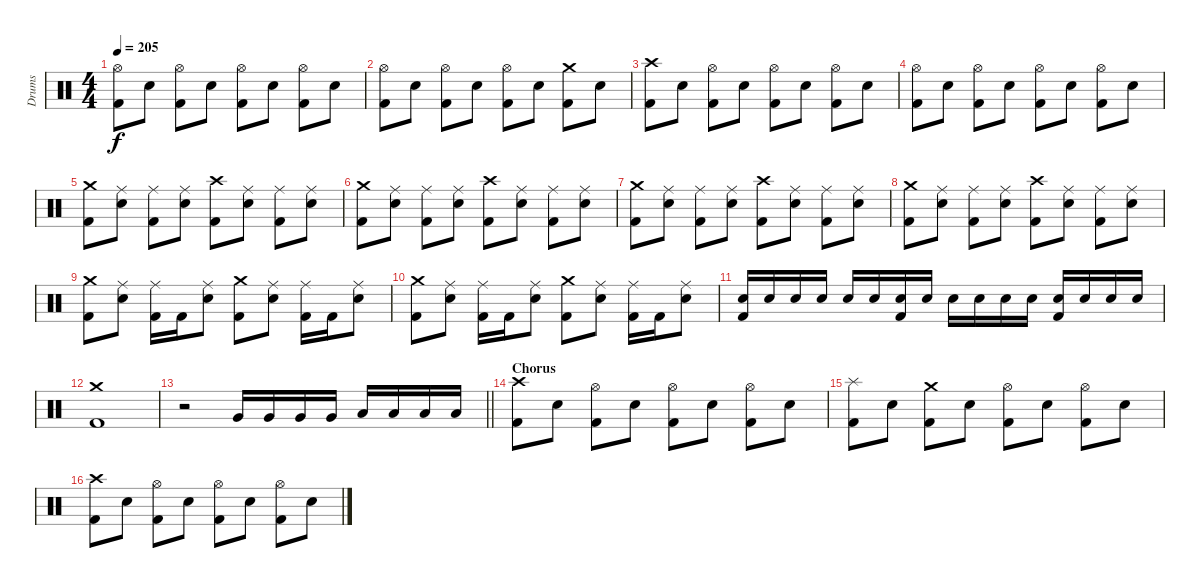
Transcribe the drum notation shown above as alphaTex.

\track ("Drums" "Drums") {instrument percussion}
\staff {score}
\articulation defaults
\ts (4 4)
\tempo 205
\clef neutral
\ks c
("Hi-Hat (open)" "Kick (hit) 2").8{dy f} "Electric Snare (hit)".8 ("Hi-Hat (open)" "Kick (hit) 2").8 "Electric Snare (hit)".8 ("Hi-Hat (open)" "Kick (hit) 2").8 "Electric Snare (hit)".8 ("Hi-Hat (open)" "Kick (hit) 2").8 "Electric Snare (hit)".8 |
("Hi-Hat (open)" "Kick (hit) 2").8 "Electric Snare (hit)".8 ("Hi-Hat (open)" "Kick (hit) 2").8 "Electric Snare (hit)".8 ("Hi-Hat (open)" "Kick (hit) 2").8 "Electric Snare (hit)".8 ("Crash medium (hit)" "Kick (hit) 2").8 "Electric Snare (hit)".8 |
("Crash high (hit)" "Kick (hit) 2").8 "Electric Snare (hit)".8 ("Hi-Hat (open)" "Kick (hit) 2").8 "Electric Snare (hit)".8 ("Hi-Hat (open)" "Kick (hit) 2").8 "Electric Snare (hit)".8 ("Hi-Hat (open)" "Kick (hit) 2").8 "Electric Snare (hit)".8 |
("Hi-Hat (open)" "Kick (hit) 2").8 "Electric Snare (hit)".8 ("Hi-Hat (open)" "Kick (hit) 2").8 "Electric Snare (hit)".8 ("Hi-Hat (open)" "Kick (hit) 2").8 "Electric Snare (hit)".8 ("Hi-Hat (open)" "Kick (hit) 2").8 "Electric Snare (hit)".8 |
("Crash medium (hit)" "Kick (hit) 2").8 ("Ride (middle)" "Electric Snare (hit)").8 ("Ride (middle)" "Kick (hit) 2").8 ("Ride (middle)" "Electric Snare (hit)").8 ("Crash high (hit)" "Kick (hit) 2").8 ("Ride (middle)" "Electric Snare (hit)").8 ("Ride (middle)" "Kick (hit) 2").8 ("Ride (middle)" "Electric Snare (hit)").8 |
("Crash medium (hit)" "Kick (hit) 2").8 ("Ride (middle)" "Electric Snare (hit)").8 ("Ride (middle)" "Kick (hit) 2").8 ("Ride (middle)" "Electric Snare (hit)").8 ("Crash high (hit)" "Kick (hit) 2").8 ("Ride (middle)" "Electric Snare (hit)").8 ("Ride (middle)" "Kick (hit) 2").8 ("Ride (middle)" "Electric Snare (hit)").8 |
("Crash medium (hit)" "Kick (hit) 2").8 ("Ride (middle)" "Electric Snare (hit)").8 ("Ride (middle)" "Kick (hit) 2").8 ("Ride (middle)" "Electric Snare (hit)").8 ("Crash high (hit)" "Kick (hit) 2").8 ("Ride (middle)" "Electric Snare (hit)").8 ("Ride (middle)" "Kick (hit) 2").8 ("Ride (middle)" "Electric Snare (hit)").8 |
("Crash medium (hit)" "Kick (hit) 2").8 ("Ride (middle)" "Electric Snare (hit)").8 ("Ride (middle)" "Kick (hit) 2").8 ("Ride (middle)" "Electric Snare (hit)").8 ("Crash high (hit)" "Kick (hit) 2").8 ("Ride (middle)" "Electric Snare (hit)").8 ("Ride (middle)" "Kick (hit) 2").8 ("Ride (middle)" "Electric Snare (hit)").8 |
("Crash medium (hit)" "Kick (hit) 2").8 ("Ride (middle)" "Electric Snare (hit)").8 ("Ride (middle)" "Kick (hit) 2").16 "Kick (hit) 2".16 ("Ride (middle)" "Electric Snare (hit)").8 ("Crash medium (hit)" "Kick (hit) 2").8 ("Ride (middle)" "Electric Snare (hit)").8 ("Ride (middle)" "Kick (hit) 2").16 "Kick (hit) 2".16 ("Ride (middle)" "Electric Snare (hit)").8 |
("Crash medium (hit)" "Kick (hit) 2").8 ("Ride (middle)" "Electric Snare (hit)").8 ("Ride (middle)" "Kick (hit) 2").16 "Kick (hit) 2".16 ("Ride (middle)" "Electric Snare (hit)").8 ("Crash medium (hit)" "Kick (hit) 2").8 ("Ride (middle)" "Electric Snare (hit)").8 ("Ride (middle)" "Kick (hit) 2").16 "Kick (hit) 2".16 ("Ride (middle)" "Electric Snare (hit)").8 |
("Electric Snare (hit)" "Kick (hit) 2").16 "Electric Snare (hit)".16 "Electric Snare (hit)".16 "Electric Snare (hit)".16 "Electric Snare (hit)".16 "Electric Snare (hit)".16 ("Electric Snare (hit)" "Kick (hit) 2").16 "Electric Snare (hit)".16 "Electric Snare (hit)".16 "Electric Snare (hit)".16 "Electric Snare (hit)".16 "Electric Snare (hit)".16 ("Electric Snare (hit)" "Kick (hit) 2").16 "Electric Snare (hit)".16 "Electric Snare (hit)".16 "Electric Snare (hit)".16 |
("Crash medium (hit)" "Kick (hit) 2").1 |
\barLineRight lightlight
r.2 "Very Low Tom (hit)".16 "Very Low Tom (hit)".16 "Very Low Tom (hit)".16 "Very Low Tom (hit)".16 "Low Floor Tom (hit)".16 "Low Floor Tom (hit)".16 "Low Floor Tom (hit)".16 "Low Floor Tom (hit)".16 |
\section ("" "Chorus")
("Crash high (hit)" "Kick (hit) 2").8 "Electric Snare (hit)".8 ("Hi-Hat (open)" "Kick (hit) 2").8 "Electric Snare (hit)".8 ("Hi-Hat (open)" "Kick (hit) 2").8 "Electric Snare (hit)".8 ("Hi-Hat (open)" "Kick (hit) 2").8 "Electric Snare (hit)".8 |
("Splash (hit)" "Kick (hit) 2").8 "Electric Snare (hit)".8 ("Crash medium (hit)" "Kick (hit) 2").8 "Electric Snare (hit)".8 ("Hi-Hat (open)" "Kick (hit) 2").8 "Electric Snare (hit)".8 ("Hi-Hat (open)" "Kick (hit) 2").8 "Electric Snare (hit)".8 |
("Crash high (hit)" "Kick (hit) 2").8 "Electric Snare (hit)".8 ("Hi-Hat (open)" "Kick (hit) 2").8 "Electric Snare (hit)".8 ("Hi-Hat (open)" "Kick (hit) 2").8 "Electric Snare (hit)".8 ("Hi-Hat (open)" "Kick (hit) 2").8 "Electric Snare (hit)".8
